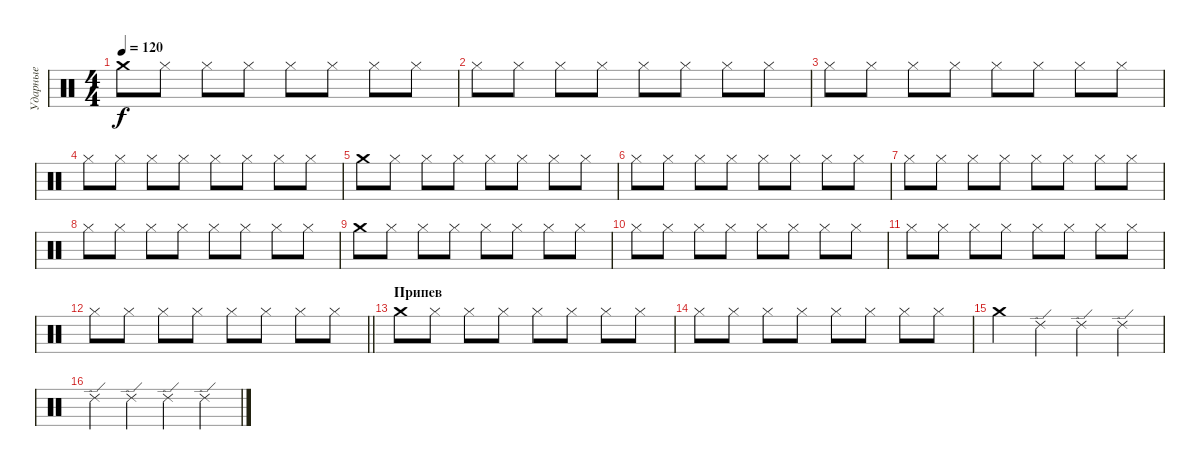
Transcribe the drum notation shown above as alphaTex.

\track ("Ударные" "Ударные") {instrument percussion}
\staff {score}
\articulation defaults
\ts (4 4)
\tempo 120
\clef neutral
\ks c "Crash medium (hit)".8{dy f} "Hi-Hat (closed)".8 "Hi-Hat (closed)".8 "Hi-Hat (closed)".8 "Hi-Hat (closed)".8 "Hi-Hat (closed)".8 "Hi-Hat (closed)".8 "Hi-Hat (closed)".8
|
"Hi-Hat (closed)".8 "Hi-Hat (closed)".8 "Hi-Hat (closed)".8 "Hi-Hat (closed)".8 "Hi-Hat (closed)".8 "Hi-Hat (closed)".8 "Hi-Hat (closed)".8 "Hi-Hat (closed)".8 |
"Hi-Hat (closed)".8 "Hi-Hat (closed)".8 "Hi-Hat (closed)".8 "Hi-Hat (closed)".8 "Hi-Hat (closed)".8 "Hi-Hat (closed)".8 "Hi-Hat (closed)".8 "Hi-Hat (closed)".8 |
"Hi-Hat (closed)".8 "Hi-Hat (closed)".8 "Hi-Hat (closed)".8 "Hi-Hat (closed)".8 "Hi-Hat (closed)".8 "Hi-Hat (closed)".8 "Hi-Hat (closed)".8 "Hi-Hat (closed)".8 |
"Crash medium (hit)".8 "Hi-Hat (closed)".8 "Hi-Hat (closed)".8 "Hi-Hat (closed)".8 "Hi-Hat (closed)".8 "Hi-Hat (closed)".8 "Hi-Hat (closed)".8 "Hi-Hat (closed)".8 |
"Hi-Hat (closed)".8 "Hi-Hat (closed)".8 "Hi-Hat (closed)".8 "Hi-Hat (closed)".8 "Hi-Hat (closed)".8 "Hi-Hat (closed)".8 "Hi-Hat (closed)".8 "Hi-Hat (closed)".8 |
"Hi-Hat (closed)".8 "Hi-Hat (closed)".8 "Hi-Hat (closed)".8 "Hi-Hat (closed)".8 "Hi-Hat (closed)".8 "Hi-Hat (closed)".8 "Hi-Hat (closed)".8 "Hi-Hat (closed)".8 |
"Hi-Hat (closed)".8 "Hi-Hat (closed)".8 "Hi-Hat (closed)".8 "Hi-Hat (closed)".8 "Hi-Hat (closed)".8 "Hi-Hat (closed)".8 "Hi-Hat (closed)".8 "Hi-Hat (closed)".8 |
"Crash medium (hit)".8 "Hi-Hat (closed)".8 "Hi-Hat (closed)".8 "Hi-Hat (closed)".8 "Hi-Hat (closed)".8 "Hi-Hat (closed)".8 "Hi-Hat (closed)".8 "Hi-Hat (closed)".8 |
"Hi-Hat (closed)".8 "Hi-Hat (closed)".8 "Hi-Hat (closed)".8 "Hi-Hat (closed)".8 "Hi-Hat (closed)".8 "Hi-Hat (closed)".8 "Hi-Hat (closed)".8 "Hi-Hat (closed)".8 |
"Hi-Hat (closed)".8 "Hi-Hat (closed)".8 "Hi-Hat (closed)".8 "Hi-Hat (closed)".8 "Hi-Hat (closed)".8 "Hi-Hat (closed)".8 "Hi-Hat (closed)".8 "Hi-Hat (closed)".8 |
\barLineRight lightlight "Hi-Hat (closed)".8 "Hi-Hat (closed)".8 "Hi-Hat (closed)".8 "Hi-Hat (closed)".8 "Hi-Hat (closed)".8 "Hi-Hat (closed)".8 "Hi-Hat (closed)".8 "Hi-Hat (closed)".8
|
\section ("" "Припев")
"Crash medium (hit)".8 "Hi-Hat (closed)".8 "Hi-Hat (closed)".8 "Hi-Hat (closed)".8 "Hi-Hat (closed)".8 "Hi-Hat (closed)".8 "Hi-Hat (closed)".8 "Hi-Hat (closed)".8 |
"Hi-Hat (closed)".8 "Hi-Hat (closed)".8 "Hi-Hat (closed)".8 "Hi-Hat (closed)".8 "Hi-Hat (closed)".8 "Hi-Hat (closed)".8 "Hi-Hat (closed)".8 "Hi-Hat (closed)".8 |
"Crash medium (hit)".4 "Ride (edge) 2".4 "Ride (edge) 2".4 "Ride (edge) 2".4 |
"Ride (edge) 2".4 "Ride (edge) 2".4 "Ride (edge) 2".4 "Ride (edge) 2".4
